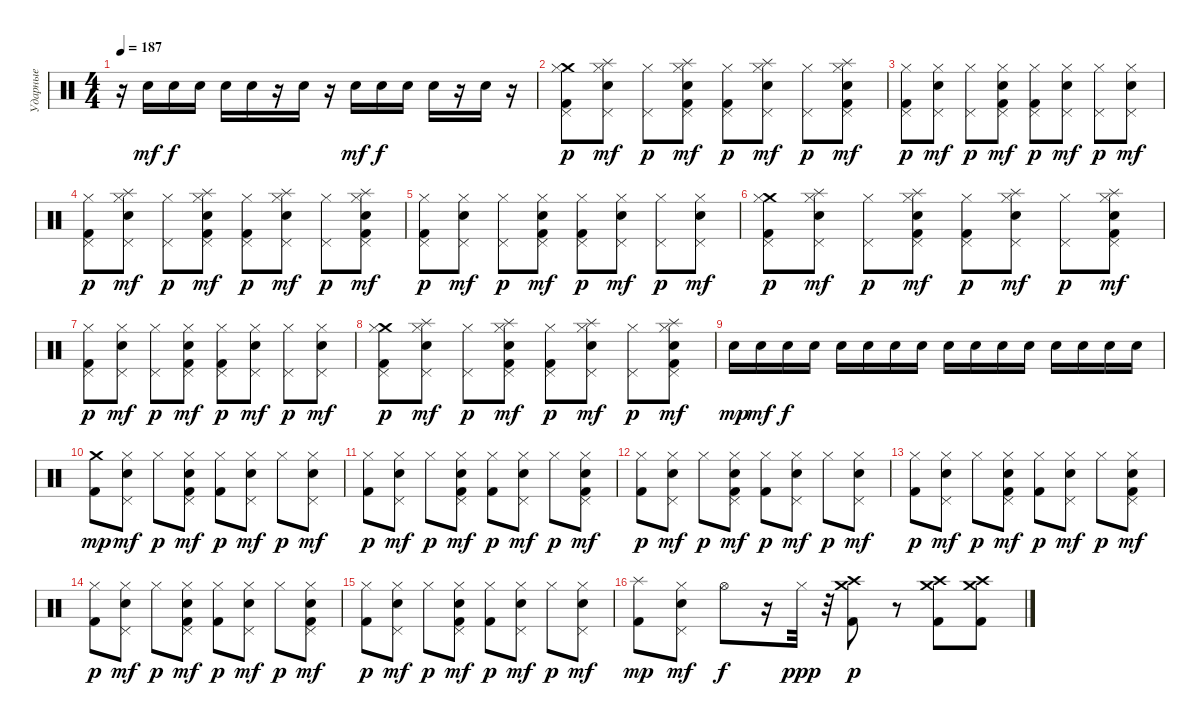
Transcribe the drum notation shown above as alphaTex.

\track ("Ударные" "Ударные") {instrument percussion}
\staff {score}
\articulation defaults
\ts (4 4)
\tempo 187
\clef neutral
\ks c
r.16{dy mf} "Electric Snare (hit)".16 "Electric Snare (hit)".16{dy f} "Electric Snare (hit)".16 "Electric Snare (hit)".16 "Electric Snare (hit)".16 r.16 "Electric Snare (hit)".16 r.16 "Electric Snare (hit)".16{dy mf} "Electric Snare (hit)".16{dy f} "Electric Snare (hit)".16 "Electric Snare (hit)".16 r.16 "Electric Snare (hit)".16 r.16 |
("Crash medium (hit)" "Pedal Hi-Hat (hit)" "Hi-Hat (closed)" "Kick (hit) 2").8{dy p} ("Splash (hit)" "Pedal Hi-Hat (hit)" "Hi-Hat (closed)" "Electric Snare (hit)").8{dy mf} ("Pedal Hi-Hat (hit)" "Hi-Hat (closed)").8{dy p} ("Splash (hit)" "Pedal Hi-Hat (hit)" "Hi-Hat (closed)" "Electric Snare (hit)" "Kick (hit) 2").8{dy mf} ("Pedal Hi-Hat (hit)" "Hi-Hat (closed)" "Kick (hit) 2").8{dy p} ("Splash (hit)" "Pedal Hi-Hat (hit)" "Hi-Hat (closed)" "Electric Snare (hit)").8{dy mf} ("Pedal Hi-Hat (hit)" "Hi-Hat (closed)").8{dy p} ("Splash (hit)" "Pedal Hi-Hat (hit)" "Hi-Hat (closed)" "Kick (hit) 2" "Electric Snare (hit)").8{dy mf} |
("Pedal Hi-Hat (hit)" "Hi-Hat (closed)" "Kick (hit) 2").8{dy p} ("Pedal Hi-Hat (hit)" "Hi-Hat (closed)" "Electric Snare (hit)").8{dy mf} ("Pedal Hi-Hat (hit)" "Hi-Hat (closed)").8{dy p} ("Pedal Hi-Hat (hit)" "Hi-Hat (closed)" "Electric Snare (hit)" "Kick (hit) 2").8{dy mf} ("Pedal Hi-Hat (hit)" "Hi-Hat (closed)" "Kick (hit) 2").8{dy p} ("Pedal Hi-Hat (hit)" "Hi-Hat (closed)" "Electric Snare (hit)").8{dy mf} ("Pedal Hi-Hat (hit)" "Hi-Hat (closed)").8{dy p} ("Pedal Hi-Hat (hit)" "Hi-Hat (closed)" "Electric Snare (hit)").8{dy mf} |
("Pedal Hi-Hat (hit)" "Hi-Hat (closed)" "Kick (hit) 2").8{dy p} ("Splash (hit)" "Pedal Hi-Hat (hit)" "Hi-Hat (closed)" "Electric Snare (hit)").8{dy mf} ("Pedal Hi-Hat (hit)" "Hi-Hat (closed)").8{dy p} ("Splash (hit)" "Pedal Hi-Hat (hit)" "Hi-Hat (closed)" "Electric Snare (hit)" "Kick (hit) 2").8{dy mf} ("Pedal Hi-Hat (hit)" "Hi-Hat (closed)" "Kick (hit) 2").8{dy p} ("Splash (hit)" "Pedal Hi-Hat (hit)" "Hi-Hat (closed)" "Electric Snare (hit)").8{dy mf} ("Pedal Hi-Hat (hit)" "Hi-Hat (closed)").8{dy p} ("Splash (hit)" "Pedal Hi-Hat (hit)" "Hi-Hat (closed)" "Kick (hit) 2" "Electric Snare (hit)").8{dy mf} |
("Pedal Hi-Hat (hit)" "Hi-Hat (closed)" "Kick (hit) 2").8{dy p} ("Pedal Hi-Hat (hit)" "Hi-Hat (closed)" "Electric Snare (hit)").8{dy mf} ("Pedal Hi-Hat (hit)" "Hi-Hat (closed)").8{dy p} ("Pedal Hi-Hat (hit)" "Hi-Hat (closed)" "Electric Snare (hit)" "Kick (hit) 2").8{dy mf} ("Pedal Hi-Hat (hit)" "Hi-Hat (closed)" "Kick (hit) 2").8{dy p} ("Pedal Hi-Hat (hit)" "Hi-Hat (closed)" "Electric Snare (hit)").8{dy mf} ("Pedal Hi-Hat (hit)" "Hi-Hat (closed)").8{dy p} ("Pedal Hi-Hat (hit)" "Hi-Hat (closed)" "Electric Snare (hit)").8{dy mf} |
("Crash medium (hit)" "Pedal Hi-Hat (hit)" "Hi-Hat (closed)" "Kick (hit) 2").8{dy p} ("Splash (hit)" "Pedal Hi-Hat (hit)" "Hi-Hat (closed)" "Electric Snare (hit)").8{dy mf} ("Pedal Hi-Hat (hit)" "Hi-Hat (closed)").8{dy p} ("Splash (hit)" "Pedal Hi-Hat (hit)" "Hi-Hat (closed)" "Electric Snare (hit)" "Kick (hit) 2").8{dy mf} ("Pedal Hi-Hat (hit)" "Hi-Hat (closed)" "Kick (hit) 2").8{dy p} ("Splash (hit)" "Pedal Hi-Hat (hit)" "Hi-Hat (closed)" "Electric Snare (hit)").8{dy mf} ("Pedal Hi-Hat (hit)" "Hi-Hat (closed)").8{dy p} ("Splash (hit)" "Pedal Hi-Hat (hit)" "Hi-Hat (closed)" "Kick (hit) 2" "Electric Snare (hit)").8{dy mf} |
("Pedal Hi-Hat (hit)" "Hi-Hat (closed)" "Kick (hit) 2").8{dy p} ("Pedal Hi-Hat (hit)" "Hi-Hat (closed)" "Electric Snare (hit)").8{dy mf} ("Pedal Hi-Hat (hit)" "Hi-Hat (closed)").8{dy p} ("Pedal Hi-Hat (hit)" "Hi-Hat (closed)" "Electric Snare (hit)" "Kick (hit) 2").8{dy mf} ("Pedal Hi-Hat (hit)" "Hi-Hat (closed)" "Kick (hit) 2").8{dy p} ("Pedal Hi-Hat (hit)" "Hi-Hat (closed)" "Electric Snare (hit)").8{dy mf} ("Pedal Hi-Hat (hit)" "Hi-Hat (closed)").8{dy p} ("Pedal Hi-Hat (hit)" "Hi-Hat (closed)" "Electric Snare (hit)").8{dy mf} |
("Crash medium (hit)" "Pedal Hi-Hat (hit)" "Hi-Hat (closed)" "Kick (hit) 2").8{dy p} ("Splash (hit)" "Pedal Hi-Hat (hit)" "Hi-Hat (closed)" "Electric Snare (hit)").8{dy mf} ("Pedal Hi-Hat (hit)" "Hi-Hat (closed)").8{dy p} ("Splash (hit)" "Pedal Hi-Hat (hit)" "Hi-Hat (closed)" "Electric Snare (hit)" "Kick (hit) 2").8{dy mf} ("Pedal Hi-Hat (hit)" "Hi-Hat (closed)" "Kick (hit) 2").8{dy p} ("Splash (hit)" "Pedal Hi-Hat (hit)" "Hi-Hat (closed)" "Electric Snare (hit)").8{dy mf} ("Pedal Hi-Hat (hit)" "Hi-Hat (closed)").8{dy p} ("Splash (hit)" "Pedal Hi-Hat (hit)" "Hi-Hat (closed)" "Kick (hit) 2" "Electric Snare (hit)").8{dy mf} |
"Electric Snare (hit)".16{dy mp} "Electric Snare (hit)".16{dy mf} "Electric Snare (hit)".16{dy f} "Electric Snare (hit)".16 "Electric Snare (hit)".16 "Electric Snare (hit)".16 "Electric Snare (hit)".16 "Electric Snare (hit)".16 "Electric Snare (hit)".16 "Electric Snare (hit)".16 "Electric Snare (hit)".16 "Electric Snare (hit)".16 "Electric Snare (hit)".16 "Electric Snare (hit)".16 "Electric Snare (hit)".16 "Electric Snare (hit)".16 |
("Crash medium (hit)" "Kick (hit) 2").8{dy mp} ("Pedal Hi-Hat (hit)" "Hi-Hat (closed)" "Electric Snare (hit)").8{dy mf} "Hi-Hat (closed)".8{dy p} ("Pedal Hi-Hat (hit)" "Hi-Hat (closed)" "Electric Snare (hit)" "Kick (hit) 2").8{dy mf} ("Hi-Hat (closed)" "Kick (hit) 2").8{dy p} ("Pedal Hi-Hat (hit)" "Hi-Hat (closed)" "Electric Snare (hit)").8{dy mf} "Hi-Hat (closed)".8{dy p} ("Pedal Hi-Hat (hit)" "Hi-Hat (closed)" "Electric Snare (hit)").8{dy mf} |
("Hi-Hat (closed)" "Kick (hit) 2").8{dy p} ("Pedal Hi-Hat (hit)" "Hi-Hat (closed)" "Electric Snare (hit)").8{dy mf} "Hi-Hat (closed)".8{dy p} ("Pedal Hi-Hat (hit)" "Hi-Hat (closed)" "Electric Snare (hit)" "Kick (hit) 2").8{dy mf} ("Hi-Hat (closed)" "Kick (hit) 2").8{dy p} ("Pedal Hi-Hat (hit)" "Hi-Hat (closed)" "Electric Snare (hit)").8{dy mf} "Hi-Hat (closed)".8{dy p} ("Pedal Hi-Hat (hit)" "Hi-Hat (closed)" "Kick (hit) 2" "Electric Snare (hit)").8{dy mf} |
("Hi-Hat (closed)" "Kick (hit) 2").8{dy p} ("Pedal Hi-Hat (hit)" "Hi-Hat (closed)" "Electric Snare (hit)").8{dy mf} "Hi-Hat (closed)".8{dy p} ("Pedal Hi-Hat (hit)" "Hi-Hat (closed)" "Electric Snare (hit)" "Kick (hit) 2").8{dy mf} ("Hi-Hat (closed)" "Kick (hit) 2").8{dy p} ("Pedal Hi-Hat (hit)" "Hi-Hat (closed)" "Electric Snare (hit)").8{dy mf} "Hi-Hat (closed)".8{dy p} ("Pedal Hi-Hat (hit)" "Hi-Hat (closed)" "Electric Snare (hit)").8{dy mf} |
("Hi-Hat (closed)" "Kick (hit) 2").8{dy p} ("Pedal Hi-Hat (hit)" "Hi-Hat (closed)" "Electric Snare (hit)").8{dy mf} "Hi-Hat (closed)".8{dy p} ("Pedal Hi-Hat (hit)" "Hi-Hat (closed)" "Electric Snare (hit)" "Kick (hit) 2").8{dy mf} ("Hi-Hat (closed)" "Kick (hit) 2").8{dy p} ("Pedal Hi-Hat (hit)" "Hi-Hat (closed)" "Electric Snare (hit)").8{dy mf} "Hi-Hat (closed)".8{dy p} ("Pedal Hi-Hat (hit)" "Hi-Hat (closed)" "Kick (hit) 2" "Electric Snare (hit)").8{dy mf} |
("Hi-Hat (closed)" "Kick (hit) 2").8{dy p} ("Pedal Hi-Hat (hit)" "Hi-Hat (closed)" "Electric Snare (hit)").8{dy mf} "Hi-Hat (closed)".8{dy p} ("Pedal Hi-Hat (hit)" "Hi-Hat (closed)" "Electric Snare (hit)" "Kick (hit) 2").8{dy mf} ("Hi-Hat (closed)" "Kick (hit) 2").8{dy p} ("Pedal Hi-Hat (hit)" "Hi-Hat (closed)" "Electric Snare (hit)").8{dy mf} "Hi-Hat (closed)".8{dy p} ("Pedal Hi-Hat (hit)" "Hi-Hat (closed)" "Kick (hit) 2" "Electric Snare (hit)").8{dy mf} |
("Hi-Hat (closed)" "Kick (hit) 2").8{dy p} ("Pedal Hi-Hat (hit)" "Hi-Hat (closed)" "Electric Snare (hit)").8{dy mf} "Hi-Hat (closed)".8{dy p} ("Pedal Hi-Hat (hit)" "Hi-Hat (closed)" "Electric Snare (hit)" "Kick (hit) 2").8{dy mf} ("Hi-Hat (closed)" "Kick (hit) 2").8{dy p} ("Pedal Hi-Hat (hit)" "Hi-Hat (closed)" "Electric Snare (hit)").8{dy mf} "Hi-Hat (closed)".8{dy p} ("Pedal Hi-Hat (hit)" "Hi-Hat (closed)" "Electric Snare (hit)").8{dy mf} |
("Splash (hit)" "Kick (hit) 2").8{dy mp} ("Pedal Hi-Hat (hit)" "Hi-Hat (closed)" "Electric Snare (hit)").8{dy mf} "Hi-Hat (open)".8{dy f} r.16 "Hi-Hat (closed)".32{dy ppp} r.32 ("Crash medium (hit)" "Crash high (hit)" "Kick (hit) 2").8{dy p} r.8 ("Kick (hit) 2" "Crash medium (hit)" "Crash high (hit)").8 ("Crash medium (hit)" "Crash high (hit)" "Kick (hit) 2").8
